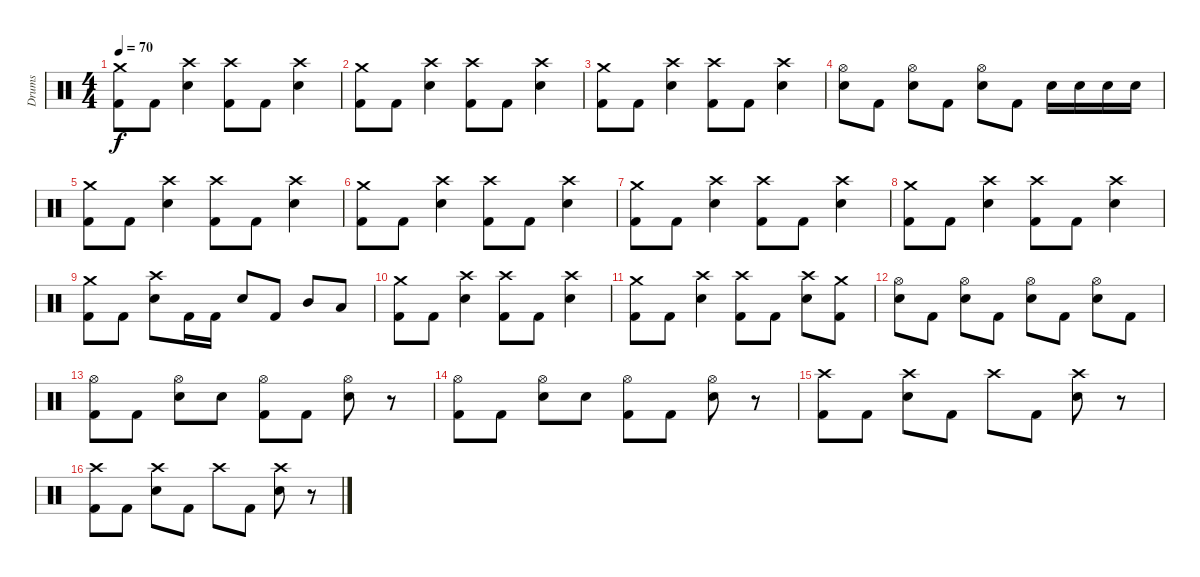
\track ("Drums" "Drums") {instrument percussion}
\staff {score}
\articulation defaults
\ts (4 4)
\tempo 70
\clef neutral
\ks c
("Crash medium (hit)" "Kick (hit) 2").8{dy f} "Kick (hit) 2".8 ("Crash high (hit)" "Snare (hit) 2").4 ("Crash high (hit)" "Kick (hit) 2").8 "Kick (hit) 2".8 ("Crash high (hit)" "Snare (hit) 2").4 |
("Crash medium (hit)" "Kick (hit) 2").8 "Kick (hit) 2".8 ("Crash high (hit)" "Snare (hit) 2").4 ("Crash high (hit)" "Kick (hit) 2").8 "Kick (hit) 2".8 ("Crash high (hit)" "Snare (hit) 2").4 |
("Crash medium (hit)" "Kick (hit) 2").8 "Kick (hit) 2".8 ("Crash high (hit)" "Snare (hit) 2").4 ("Crash high (hit)" "Kick (hit) 2").8 "Kick (hit) 2".8 ("Crash high (hit)" "Snare (hit) 2").4 |
("Hi-Hat (open)" "Snare (hit) 2").8 "Kick (hit) 2".8 ("Hi-Hat (open)" "Snare (hit) 2").8 "Kick (hit) 2".8 ("Hi-Hat (open)" "Snare (hit) 2").8 "Kick (hit) 2".8 "Snare (hit) 2".16 "Snare (hit) 2".16 "Snare (hit) 2".16 "Snare (hit) 2".16 |
("Crash medium (hit)" "Kick (hit) 2").8 "Kick (hit) 2".8 ("Crash high (hit)" "Snare (hit) 2").4 ("Crash high (hit)" "Kick (hit) 2").8 "Kick (hit) 2".8 ("Crash high (hit)" "Snare (hit) 2").4 |
("Crash medium (hit)" "Kick (hit) 2").8 "Kick (hit) 2".8 ("Crash high (hit)" "Snare (hit) 2").4 ("Crash high (hit)" "Kick (hit) 2").8 "Kick (hit) 2".8 ("Crash high (hit)" "Snare (hit) 2").4 |
("Crash medium (hit)" "Kick (hit) 2").8 "Kick (hit) 2".8 ("Crash high (hit)" "Snare (hit) 2").4 ("Crash high (hit)" "Kick (hit) 2").8 "Kick (hit) 2".8 ("Crash high (hit)" "Snare (hit) 2").4 |
("Crash medium (hit)" "Kick (hit) 2").8 "Kick (hit) 2".8 ("Crash high (hit)" "Snare (hit) 2").4 ("Crash high (hit)" "Kick (hit) 2").8 "Kick (hit) 2".8 ("Crash high (hit)" "Snare (hit) 2").4 |
("Crash medium (hit)" "Kick (hit) 2").8 "Kick (hit) 2".8 ("Crash high (hit)" "Snare (hit) 2").8 "Kick (hit) 2".16 "Kick (hit) 2".16 "Snare (hit) 2".8 "Kick (hit) 2".8 "Mid Tom (hit)".8 "Low Tom (hit)".8 |
("Crash medium (hit)" "Kick (hit) 2").8 "Kick (hit) 2".8 ("Crash high (hit)" "Snare (hit) 2").4 ("Crash high (hit)" "Kick (hit) 2").8 "Kick (hit) 2".8 ("Crash high (hit)" "Snare (hit) 2").4 |
("Crash medium (hit)" "Kick (hit) 2").8 "Kick (hit) 2".8 ("Crash high (hit)" "Snare (hit) 2").4 ("Crash high (hit)" "Kick (hit) 2").8 "Kick (hit) 2".8 ("Crash high (hit)" "Snare (hit) 2").8 ("Crash medium (hit)" "Kick (hit) 2").8 |
("Hi-Hat (open)" "Snare (hit) 2").8 "Kick (hit) 2".8 ("Hi-Hat (open)" "Snare (hit) 2").8 "Kick (hit) 2".8 ("Hi-Hat (open)" "Snare (hit) 2").8 "Kick (hit) 2".8 ("Hi-Hat (open)" "Snare (hit) 2").8 "Kick (hit) 2".8 |
("Hi-Hat (open)" "Kick (hit) 2").8 "Kick (hit) 2".8 ("Hi-Hat (open)" "Snare (hit) 2").8 "Snare (hit) 2".8 ("Hi-Hat (open)" "Kick (hit) 2").8 "Kick (hit) 2".8 ("Hi-Hat (open)" "Snare (hit) 2").8 r.8 |
("Hi-Hat (open)" "Kick (hit) 2").8 "Kick (hit) 2".8 ("Hi-Hat (open)" "Snare (hit) 2").8 "Snare (hit) 2".8 ("Hi-Hat (open)" "Kick (hit) 2").8 "Kick (hit) 2".8 ("Hi-Hat (open)" "Snare (hit) 2").8 r.8 |
("Crash high (hit)" "Kick (hit) 2").8 "Kick (hit) 2".8 ("Crash high (hit)" "Snare (hit) 2").8 "Kick (hit) 2".8 "Crash high (hit)".8 "Kick (hit) 2".8 ("Crash high (hit)" "Snare (hit) 2").8 r.8 |
("Crash high (hit)" "Kick (hit) 2").8 "Kick (hit) 2".8 ("Crash high (hit)" "Snare (hit) 2").8 "Kick (hit) 2".8 "Crash high (hit)".8 "Kick (hit) 2".8 ("Crash high (hit)" "Snare (hit) 2").8 r.8
